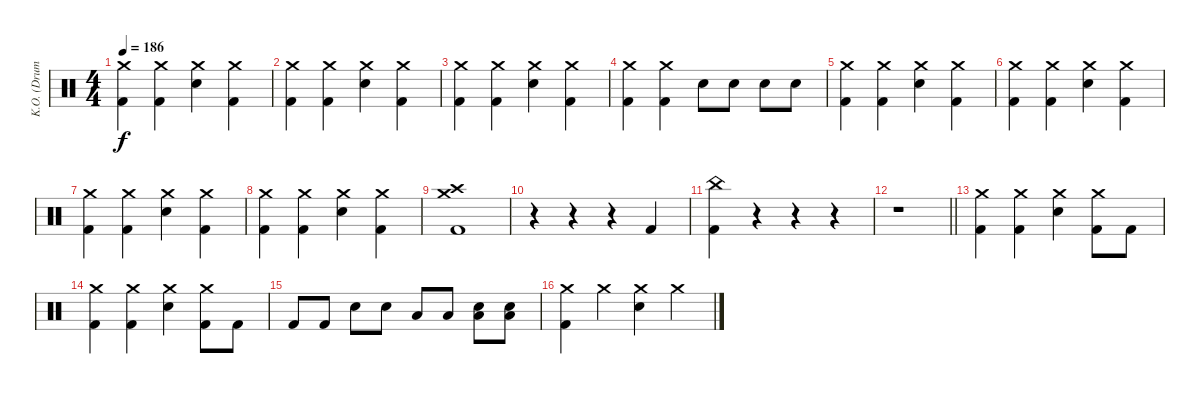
\track ("K.O. (Drums)" "K.O. (Drum") {instrument percussion}
\staff {score}
\articulation defaults
\ts (4 4)
\tempo 186
\clef neutral
\ks c
("Crash medium (hit)" "Kick (hit) 2").4{dy f} ("Crash medium (hit)" "Kick (hit) 2").4 ("Crash medium (hit)" "Electric Snare (hit)").4 ("Crash medium (hit)" "Kick (hit) 2").4 |
("Crash medium (hit)" "Kick (hit) 2").4 ("Crash medium (hit)" "Kick (hit) 2").4 ("Crash medium (hit)" "Electric Snare (hit)").4 ("Crash medium (hit)" "Kick (hit) 2").4 |
("Crash medium (hit)" "Kick (hit) 2").4 ("Crash medium (hit)" "Kick (hit) 2").4 ("Crash medium (hit)" "Electric Snare (hit)").4 ("Crash medium (hit)" "Kick (hit) 2").4 |
("Crash medium (hit)" "Kick (hit) 2").4 ("Crash medium (hit)" "Kick (hit) 2").4 "Electric Snare (hit)".8 "Electric Snare (hit)".8 "Electric Snare (hit)".8 "Electric Snare (hit)".8 |
("Crash medium (hit)" "Kick (hit) 2").4 ("Crash medium (hit)" "Kick (hit) 2").4 ("Crash medium (hit)" "Electric Snare (hit)").4 ("Crash medium (hit)" "Kick (hit) 2").4 |
("Crash medium (hit)" "Kick (hit) 2").4 ("Crash medium (hit)" "Kick (hit) 2").4 ("Crash medium (hit)" "Electric Snare (hit)").4 ("Crash medium (hit)" "Kick (hit) 2").4 |
("Crash medium (hit)" "Kick (hit) 2").4 ("Crash medium (hit)" "Kick (hit) 2").4 ("Crash medium (hit)" "Electric Snare (hit)").4 ("Crash medium (hit)" "Kick (hit) 2").4 |
("Crash medium (hit)" "Kick (hit) 2").4 ("Crash medium (hit)" "Kick (hit) 2").4 ("Crash medium (hit)" "Electric Snare (hit)").4 ("Crash medium (hit)" "Kick (hit) 2").4 |
("Crash medium (hit)" "Crash high (hit)" "Kick (hit) 2").1 |
r.4 r.4 r.4 "Kick (hit) 2".4 |
("China (hit)" "Kick (hit) 2").4 r.4 r.4 r.4 |
\barLineRight lightlight
r.1 |
("Crash medium (hit)" "Kick (hit) 2").4 ("Crash medium (hit)" "Kick (hit) 2").4 ("Crash medium (hit)" "Electric Snare (hit)").4 ("Crash medium (hit)" "Kick (hit) 2").8 "Kick (hit) 2".8 |
("Crash medium (hit)" "Kick (hit) 2").4 ("Crash medium (hit)" "Kick (hit) 2").4 ("Crash medium (hit)" "Electric Snare (hit)").4 ("Crash medium (hit)" "Kick (hit) 2").8 "Kick (hit) 2".8 |
"Kick (hit) 2".8 "Kick (hit) 2".8 "Electric Snare (hit)".8 "Electric Snare (hit)".8 "Low Tom (hit)".8 "Low Tom (hit)".8 ("Low Floor Tom (hit)" "Electric Snare (hit)").8 ("Low Floor Tom (hit)" "Electric Snare (hit)").8 |
("Crash medium (hit)" "Kick (hit) 2").4 "Crash medium (hit)".4 ("Crash medium (hit)" "Electric Snare (hit)").4 "Crash medium (hit)".4
